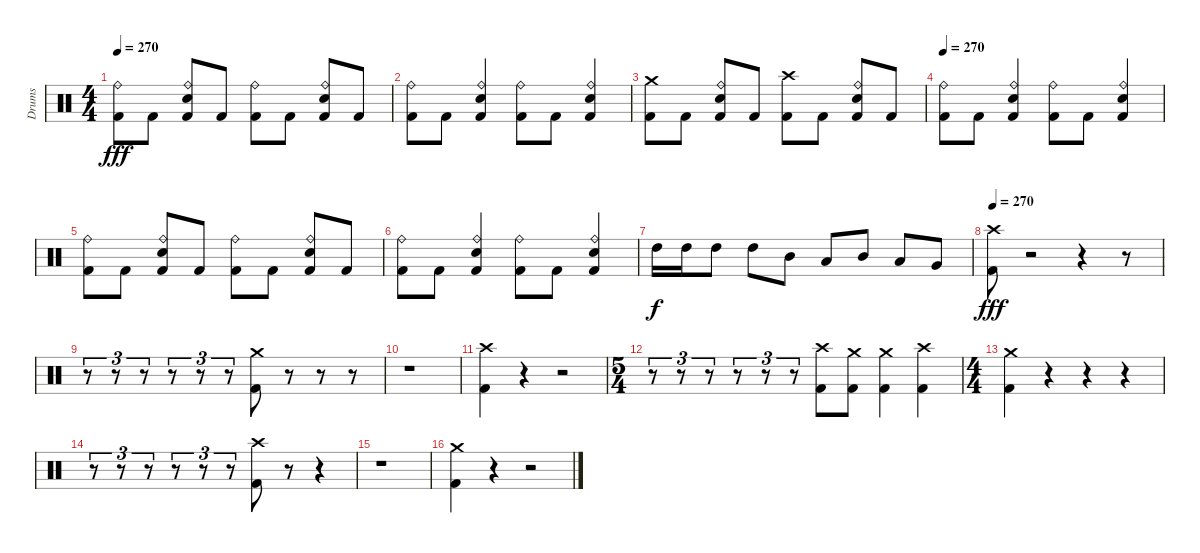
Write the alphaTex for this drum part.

\track ("Drums" "Drums") {instrument percussion}
\staff {score}
\articulation defaults
\ts (4 4)
\tempo 270
\clef neutral
\ks c
("Kick (hit) 2" "Ride (bell)").8{dy fff} "Kick (hit) 2".8 ("Snare (hit) 2" "Ride (bell)" "Kick (hit) 2").8 "Kick (hit) 2".8 ("Kick (hit) 2" "Ride (bell)").8 "Kick (hit) 2".8 ("Snare (hit) 2" "Ride (bell)" "Kick (hit) 2").8 "Kick (hit) 2".8 |
("Kick (hit) 2" "Ride (bell)").8 "Kick (hit) 2".8 ("Snare (hit) 2" "Ride (bell)" "Kick (hit) 2").4 ("Kick (hit) 2" "Ride (bell)").8 "Kick (hit) 2".8 ("Snare (hit) 2" "Ride (bell)" "Kick (hit) 2").4 |
("Kick (hit) 2" "Crash medium (hit)").8 "Kick (hit) 2".8 ("Snare (hit) 2" "Ride (bell)" "Kick (hit) 2").8 "Kick (hit) 2".8 ("Kick (hit) 2" "Crash high (hit)").8 "Kick (hit) 2".8 ("Snare (hit) 2" "Ride (bell)" "Kick (hit) 2").8 "Kick (hit) 2".8 |
\tempo 270
("Kick (hit) 2" "Ride (bell)").8 "Kick (hit) 2".8 ("Snare (hit) 2" "Ride (bell)" "Kick (hit) 2").4 ("Kick (hit) 2" "Ride (bell)").8 "Kick (hit) 2".8 ("Snare (hit) 2" "Ride (bell)" "Kick (hit) 2").4 |
("Kick (hit) 2" "Ride (bell)").8 "Kick (hit) 2".8 ("Snare (hit) 2" "Ride (bell)" "Kick (hit) 2").8 "Kick (hit) 2".8 ("Kick (hit) 2" "Ride (bell)").8 "Kick (hit) 2".8 ("Snare (hit) 2" "Ride (bell)" "Kick (hit) 2").8 "Kick (hit) 2".8 |
("Kick (hit) 2" "Ride (bell)").8 "Kick (hit) 2".8 ("Snare (hit) 2" "Ride (bell)" "Kick (hit) 2").4 ("Kick (hit) 2" "Ride (bell)").8 "Kick (hit) 2".8 ("Snare (hit) 2" "Ride (bell)" "Kick (hit) 2").4 |
"High Tom (hit)".16{dy f} "High Tom (hit)".16 "High Tom (hit)".8 "High Tom (hit)".8 "Mid Tom (hit)".8 "Low Tom (hit)".8 "Mid Tom (hit)".8 "Low Tom (hit)".8 "Very Low Tom (hit)".8 |
\tempo 270
("Crash high (hit)" "Kick (hit) 2").8{dy fff} r.2 r.4 r.8 |
r.8{tu (3 2)} r.8{tu (3 2)} r.8{tu (3 2)} r.8{tu (3 2)} r.8{tu (3 2)} r.8{tu (3 2)} ("Crash medium (hit)" "Kick (hit) 2").8 r.8 r.8 r.8 |
r.1 |
("Crash high (hit)" "Kick (hit) 2").4 r.4 r.2 |
\ts (5 4)
r.8{tu (3 2)} r.8{tu (3 2)} r.8{tu (3 2)} r.8{tu (3 2)} r.8{tu (3 2)} r.8{tu (3 2)} ("Crash high (hit)" "Kick (hit) 2").8 ("Crash medium (hit)" "Kick (hit) 2").8 ("Crash medium (hit)" "Kick (hit) 2").4 ("Crash high (hit)" "Kick (hit) 2").4 |
\ts (4 4)
("Crash medium (hit)" "Kick (hit) 2").4 r.4 r.4 r.4 |
r.8{tu (3 2)} r.8{tu (3 2)} r.8{tu (3 2)} r.8{tu (3 2)} r.8{tu (3 2)} r.8{tu (3 2)} ("Crash high (hit)" "Kick (hit) 2").8 r.8 r.4 |
r.1 |
("Crash medium (hit)" "Kick (hit) 2").4 r.4 r.2
